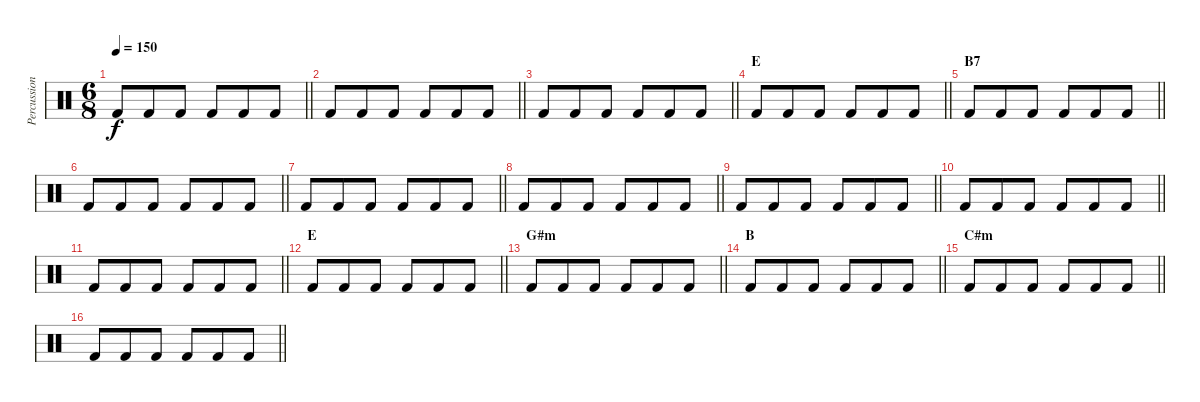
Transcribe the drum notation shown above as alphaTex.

\track ("Percussion" "Percussion") {instrument percussion}
\staff {score}
\articulation defaults
\ts (6 8)
\tempo 150
\clef neutral
\barLineRight lightlight
\ks c "Kick (hit) 2".8{dy f} "Kick (hit) 2".8 "Kick (hit) 2".8 "Kick (hit) 2".8 "Kick (hit) 2".8 "Kick (hit) 2".8
|
\barLineRight lightlight "Kick (hit) 2".8 "Kick (hit) 2".8 "Kick (hit) 2".8 "Kick (hit) 2".8 "Kick (hit) 2".8 "Kick (hit) 2".8
|
\barLineRight lightlight "Kick (hit) 2".8 "Kick (hit) 2".8 "Kick (hit) 2".8 "Kick (hit) 2".8 "Kick (hit) 2".8 "Kick (hit) 2".8
|
\section ("" "E")
\barLineRight lightlight "Kick (hit) 2".8 "Kick (hit) 2".8 "Kick (hit) 2".8 "Kick (hit) 2".8 "Kick (hit) 2".8 "Kick (hit) 2".8
|
\section ("" "B7")
\barLineRight lightlight "Kick (hit) 2".8 "Kick (hit) 2".8 "Kick (hit) 2".8 "Kick (hit) 2".8 "Kick (hit) 2".8 "Kick (hit) 2".8
|
\barLineRight lightlight "Kick (hit) 2".8 "Kick (hit) 2".8 "Kick (hit) 2".8 "Kick (hit) 2".8 "Kick (hit) 2".8 "Kick (hit) 2".8
|
\barLineRight lightlight "Kick (hit) 2".8 "Kick (hit) 2".8 "Kick (hit) 2".8 "Kick (hit) 2".8 "Kick (hit) 2".8 "Kick (hit) 2".8
|
\barLineRight lightlight "Kick (hit) 2".8 "Kick (hit) 2".8 "Kick (hit) 2".8 "Kick (hit) 2".8 "Kick (hit) 2".8 "Kick (hit) 2".8
|
\barLineRight lightlight "Kick (hit) 2".8 "Kick (hit) 2".8 "Kick (hit) 2".8 "Kick (hit) 2".8 "Kick (hit) 2".8 "Kick (hit) 2".8
|
\barLineRight lightlight "Kick (hit) 2".8 "Kick (hit) 2".8 "Kick (hit) 2".8 "Kick (hit) 2".8 "Kick (hit) 2".8 "Kick (hit) 2".8
|
\barLineRight lightlight "Kick (hit) 2".8 "Kick (hit) 2".8 "Kick (hit) 2".8 "Kick (hit) 2".8 "Kick (hit) 2".8 "Kick (hit) 2".8
|
\section ("" "E")
\barLineRight lightlight "Kick (hit) 2".8 "Kick (hit) 2".8 "Kick (hit) 2".8 "Kick (hit) 2".8 "Kick (hit) 2".8 "Kick (hit) 2".8
|
\section ("" "G#m")
\barLineRight lightlight "Kick (hit) 2".8 "Kick (hit) 2".8 "Kick (hit) 2".8 "Kick (hit) 2".8 "Kick (hit) 2".8 "Kick (hit) 2".8
|
\section ("" "B")
\barLineRight lightlight "Kick (hit) 2".8 "Kick (hit) 2".8 "Kick (hit) 2".8 "Kick (hit) 2".8 "Kick (hit) 2".8 "Kick (hit) 2".8
|
\section ("" "C#m")
\barLineRight lightlight "Kick (hit) 2".8 "Kick (hit) 2".8 "Kick (hit) 2".8 "Kick (hit) 2".8 "Kick (hit) 2".8 "Kick (hit) 2".8
|
\barLineRight lightlight "Kick (hit) 2".8 "Kick (hit) 2".8 "Kick (hit) 2".8 "Kick (hit) 2".8 "Kick (hit) 2".8 "Kick (hit) 2".8
